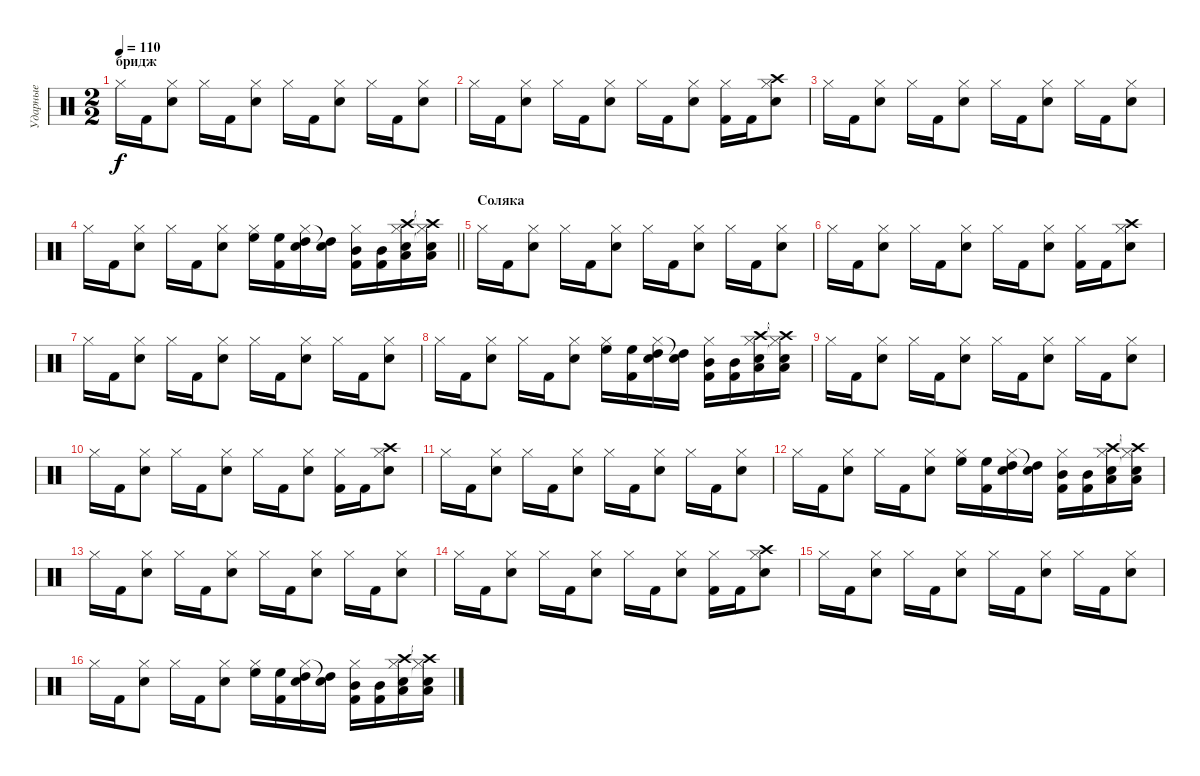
\track ("Ударные" "Ударные") {instrument percussion}
\staff {score}
\articulation defaults
\ts (2 2)
\section ("" "бридж")
\tempo 110
\clef neutral
\ks c "Hi-Hat (closed)".16{dy f} "Kick (hit) 2".16
("Hi-Hat (closed)" "Snare (hit) 2").8 "Hi-Hat (closed)".16 "Kick (hit) 2".16 ("Hi-Hat (closed)" "Snare (hit) 2").8 "Hi-Hat (closed)".16 "Kick (hit) 2".16 ("Hi-Hat (closed)" "Snare (hit) 2").8 "Hi-Hat (closed)".16 "Kick (hit) 2".16 ("Hi-Hat (closed)" "Snare (hit) 2").8 |
"Hi-Hat (closed)".16 "Kick (hit) 2".16 ("Hi-Hat (closed)" "Snare (hit) 2").8 "Hi-Hat (closed)".16 "Kick (hit) 2".16 ("Hi-Hat (closed)" "Snare (hit) 2").8 "Hi-Hat (closed)".16 "Kick (hit) 2".16 ("Hi-Hat (closed)" "Snare (hit) 2").8 ("Hi-Hat (closed)" "Kick (hit) 2").16 "Kick (hit) 2".16 ("Hi-Hat (closed)" "Snare (hit) 2" "Crash high (hit)").8 |
"Hi-Hat (closed)".16 "Kick (hit) 2".16 ("Hi-Hat (closed)" "Snare (hit) 2").8 "Hi-Hat (closed)".16 "Kick (hit) 2".16 ("Hi-Hat (closed)" "Snare (hit) 2").8 "Hi-Hat (closed)".16 "Kick (hit) 2".16 ("Hi-Hat (closed)" "Snare (hit) 2").8 "Hi-Hat (closed)".16 "Kick (hit) 2".16 ("Hi-Hat (closed)" "Snare (hit) 2").8 |
\barLineRight lightlight "Hi-Hat (closed)".16 "Kick (hit) 2".16
("Hi-Hat (closed)" "Snare (hit) 2").8 "Hi-Hat (closed)".16 "Kick (hit) 2".16 ("Hi-Hat (closed)" "Snare (hit) 2").8 ("Hi-Hat (closed)" "High Floor Tom (hit)").16 ("High Floor Tom (hit)" "Kick (hit) 2").16 ("Hi-Hat (closed)" "Snare (hit) 2" "High Tom (hit)").16 ("Snare (hit) 2"{t} "High Tom (hit)").16 ("Hi-Hat (closed)" "Mid Tom (hit)" "Kick (hit) 2").16 ("Mid Tom (hit)" "Kick (hit) 2").16 ("Hi-Hat (closed)" "Snare (hit) 2" "Crash high (hit)" "Low Tom (hit)").16 ("Hi-Hat (closed)"{t} "Snare (hit) 2"{t} "Crash high (hit)"{t} "Low Tom (hit)").16 |
\section ("" "Соляка")
"Hi-Hat (closed)".16 "Kick (hit) 2".16 ("Hi-Hat (closed)" "Snare (hit) 2").8 "Hi-Hat (closed)".16 "Kick (hit) 2".16 ("Hi-Hat (closed)" "Snare (hit) 2").8 "Hi-Hat (closed)".16 "Kick (hit) 2".16 ("Hi-Hat (closed)" "Snare (hit) 2").8 "Hi-Hat (closed)".16 "Kick (hit) 2".16 ("Hi-Hat (closed)" "Snare (hit) 2").8 |
"Hi-Hat (closed)".16 "Kick (hit) 2".16 ("Hi-Hat (closed)" "Snare (hit) 2").8 "Hi-Hat (closed)".16 "Kick (hit) 2".16 ("Hi-Hat (closed)" "Snare (hit) 2").8 "Hi-Hat (closed)".16 "Kick (hit) 2".16 ("Hi-Hat (closed)" "Snare (hit) 2").8 ("Hi-Hat (closed)" "Kick (hit) 2").16 "Kick (hit) 2".16 ("Hi-Hat (closed)" "Snare (hit) 2" "Crash high (hit)").8 |
"Hi-Hat (closed)".16 "Kick (hit) 2".16 ("Hi-Hat (closed)" "Snare (hit) 2").8 "Hi-Hat (closed)".16 "Kick (hit) 2".16 ("Hi-Hat (closed)" "Snare (hit) 2").8 "Hi-Hat (closed)".16 "Kick (hit) 2".16 ("Hi-Hat (closed)" "Snare (hit) 2").8 "Hi-Hat (closed)".16 "Kick (hit) 2".16 ("Hi-Hat (closed)" "Snare (hit) 2").8 |
"Hi-Hat (closed)".16 "Kick (hit) 2".16 ("Hi-Hat (closed)" "Snare (hit) 2").8 "Hi-Hat (closed)".16 "Kick (hit) 2".16 ("Hi-Hat (closed)" "Snare (hit) 2").8 ("Hi-Hat (closed)" "High Floor Tom (hit)").16 ("High Floor Tom (hit)" "Kick (hit) 2").16 ("Hi-Hat (closed)" "Snare (hit) 2" "High Tom (hit)").16 ("Snare (hit) 2"{t} "High Tom (hit)").16 ("Hi-Hat (closed)" "Mid Tom (hit)" "Kick (hit) 2").16 ("Mid Tom (hit)" "Kick (hit) 2").16 ("Hi-Hat (closed)" "Snare (hit) 2" "Crash high (hit)" "Low Tom (hit)").16 ("Hi-Hat (closed)"{t} "Snare (hit) 2"{t} "Crash high (hit)"{t} "Low Tom (hit)").16 |
"Hi-Hat (closed)".16 "Kick (hit) 2".16 ("Hi-Hat (closed)" "Snare (hit) 2").8 "Hi-Hat (closed)".16 "Kick (hit) 2".16 ("Hi-Hat (closed)" "Snare (hit) 2").8 "Hi-Hat (closed)".16 "Kick (hit) 2".16 ("Hi-Hat (closed)" "Snare (hit) 2").8 "Hi-Hat (closed)".16 "Kick (hit) 2".16 ("Hi-Hat (closed)" "Snare (hit) 2").8 |
"Hi-Hat (closed)".16 "Kick (hit) 2".16 ("Hi-Hat (closed)" "Snare (hit) 2").8 "Hi-Hat (closed)".16 "Kick (hit) 2".16 ("Hi-Hat (closed)" "Snare (hit) 2").8 "Hi-Hat (closed)".16 "Kick (hit) 2".16 ("Hi-Hat (closed)" "Snare (hit) 2").8 ("Hi-Hat (closed)" "Kick (hit) 2").16 "Kick (hit) 2".16 ("Hi-Hat (closed)" "Snare (hit) 2" "Crash high (hit)").8 |
"Hi-Hat (closed)".16 "Kick (hit) 2".16 ("Hi-Hat (closed)" "Snare (hit) 2").8 "Hi-Hat (closed)".16 "Kick (hit) 2".16 ("Hi-Hat (closed)" "Snare (hit) 2").8 "Hi-Hat (closed)".16 "Kick (hit) 2".16 ("Hi-Hat (closed)" "Snare (hit) 2").8 "Hi-Hat (closed)".16 "Kick (hit) 2".16 ("Hi-Hat (closed)" "Snare (hit) 2").8 |
"Hi-Hat (closed)".16 "Kick (hit) 2".16 ("Hi-Hat (closed)" "Snare (hit) 2").8 "Hi-Hat (closed)".16 "Kick (hit) 2".16 ("Hi-Hat (closed)" "Snare (hit) 2").8 ("Hi-Hat (closed)" "High Floor Tom (hit)").16 ("High Floor Tom (hit)" "Kick (hit) 2").16 ("Hi-Hat (closed)" "Snare (hit) 2" "High Tom (hit)").16 ("Snare (hit) 2"{t} "High Tom (hit)").16 ("Hi-Hat (closed)" "Mid Tom (hit)" "Kick (hit) 2").16 ("Mid Tom (hit)" "Kick (hit) 2").16 ("Hi-Hat (closed)" "Snare (hit) 2" "Crash high (hit)" "Low Tom (hit)").16 ("Hi-Hat (closed)"{t} "Snare (hit) 2"{t} "Crash high (hit)"{t} "Low Tom (hit)").16 |
"Hi-Hat (closed)".16 "Kick (hit) 2".16 ("Hi-Hat (closed)" "Snare (hit) 2").8 "Hi-Hat (closed)".16 "Kick (hit) 2".16 ("Hi-Hat (closed)" "Snare (hit) 2").8 "Hi-Hat (closed)".16 "Kick (hit) 2".16 ("Hi-Hat (closed)" "Snare (hit) 2").8 "Hi-Hat (closed)".16 "Kick (hit) 2".16 ("Hi-Hat (closed)" "Snare (hit) 2").8 |
"Hi-Hat (closed)".16 "Kick (hit) 2".16 ("Hi-Hat (closed)" "Snare (hit) 2").8 "Hi-Hat (closed)".16 "Kick (hit) 2".16 ("Hi-Hat (closed)" "Snare (hit) 2").8 "Hi-Hat (closed)".16 "Kick (hit) 2".16 ("Hi-Hat (closed)" "Snare (hit) 2").8 ("Hi-Hat (closed)" "Kick (hit) 2").16 "Kick (hit) 2".16 ("Hi-Hat (closed)" "Snare (hit) 2" "Crash high (hit)").8 |
"Hi-Hat (closed)".16 "Kick (hit) 2".16 ("Hi-Hat (closed)" "Snare (hit) 2").8 "Hi-Hat (closed)".16 "Kick (hit) 2".16 ("Hi-Hat (closed)" "Snare (hit) 2").8 "Hi-Hat (closed)".16 "Kick (hit) 2".16 ("Hi-Hat (closed)" "Snare (hit) 2").8 "Hi-Hat (closed)".16 "Kick (hit) 2".16 ("Hi-Hat (closed)" "Snare (hit) 2").8 |
"Hi-Hat (closed)".16 "Kick (hit) 2".16 ("Hi-Hat (closed)" "Snare (hit) 2").8 "Hi-Hat (closed)".16 "Kick (hit) 2".16 ("Hi-Hat (closed)" "Snare (hit) 2").8 ("Hi-Hat (closed)" "High Floor Tom (hit)").16 ("High Floor Tom (hit)" "Kick (hit) 2").16 ("Hi-Hat (closed)" "Snare (hit) 2" "High Tom (hit)").16 ("Snare (hit) 2"{t} "High Tom (hit)").16 ("Hi-Hat (closed)" "Mid Tom (hit)" "Kick (hit) 2").16 ("Mid Tom (hit)" "Kick (hit) 2").16 ("Hi-Hat (closed)" "Snare (hit) 2" "Crash high (hit)" "Low Tom (hit)").16 ("Hi-Hat (closed)"{t} "Snare (hit) 2"{t} "Crash high (hit)"{t} "Low Tom (hit)").16
